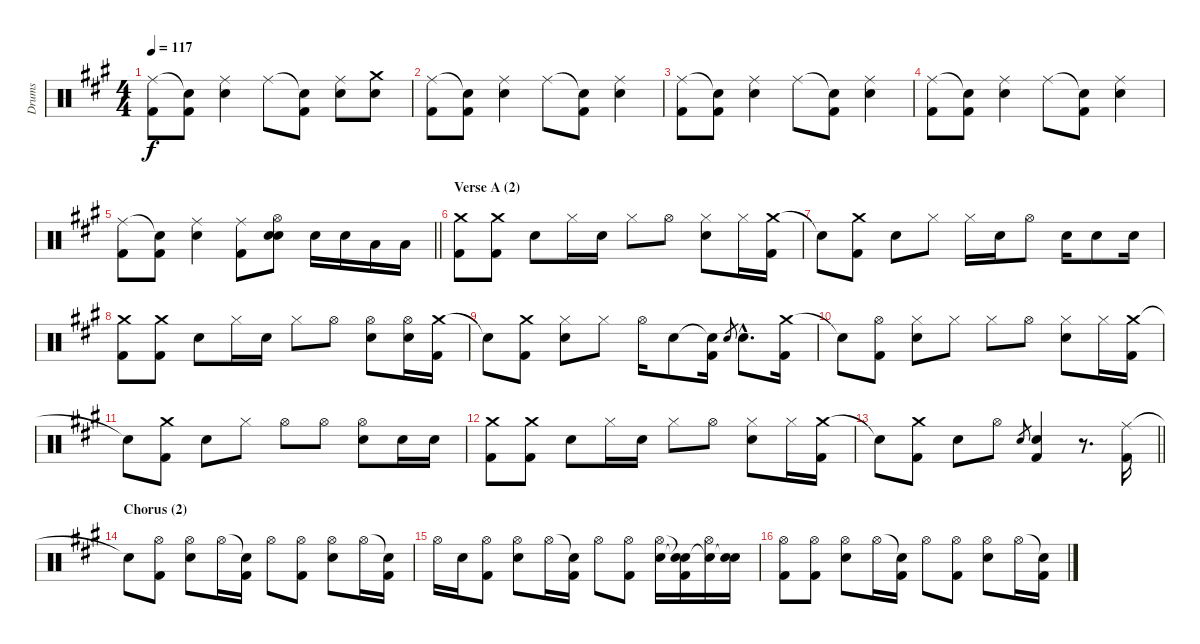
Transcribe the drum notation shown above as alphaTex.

\track ("Drums" "Drums") {instrument percussion}
\staff {score}
\articulation defaults
\ts (4 4)
\tempo 117
\clef neutral
\ks f#minor
("Ride (middle)" "Kick (hit) 2").8{dy f} ("Snare (hit)"{t} "Kick (hit) 2").8 ("Ride (middle)" "Electric Snare (hit)").4 "Ride (middle)".8 ("Snare (hit)"{t} "Kick (hit) 2").8 ("Ride (middle)" "Electric Snare (hit)").8 ("Crash medium (hit)" "Electric Snare (hit)").8 |
("Ride (middle)" "Kick (hit) 2").8 ("Snare (hit)"{t} "Kick (hit) 2").8 ("Ride (middle)" "Electric Snare (hit)").4 "Ride (middle)".8 ("Snare (hit)"{t} "Kick (hit) 2").8 ("Ride (middle)" "Electric Snare (hit)").4 |
("Ride (middle)" "Kick (hit) 2").8 ("Snare (hit)"{t} "Kick (hit) 2").8 ("Ride (middle)" "Electric Snare (hit)").4 "Ride (middle)".8 ("Snare (hit)"{t} "Kick (hit) 2").8 ("Ride (middle)" "Electric Snare (hit)").4 |
("Ride (middle)" "Kick (hit) 2").8 ("Snare (hit)"{t} "Kick (hit) 2").8 ("Ride (middle)" "Electric Snare (hit)").4 "Ride (middle)".8 ("Snare (hit)"{t} "Kick (hit) 2").8 ("Ride (middle)" "Electric Snare (hit)").4 |
\barLineRight lightlight
("Ride (middle)" "Kick (hit) 2").8 ("Snare (hit)"{t} "Kick (hit) 2").8 ("Ride (middle)" "Electric Snare (hit)").4 ("Ride (middle)" "Kick (hit) 2").8 ("Hi-Hat (open)" "Electric Snare (hit)" "Snare (hit)").8 "Electric Snare (hit)".16 "Electric Snare (hit)".16 "Low Floor Tom (hit)".16 "Low Floor Tom (hit)".16 |
\section ("" "Verse A (2)")
("Crash medium (hit)" "Kick (hit) 2").8 ("Crash medium (hit)" "Kick (hit) 2").8 "Electric Snare (hit)".8 "Hi-Hat (closed)".16 "Electric Snare (hit)".16 "Hi-Hat (closed)".8 "Hi-Hat (open)".8 ("Hi-Hat (closed)" "Electric Snare (hit)").8 "Hi-Hat (closed)".16 ("Crash medium (hit)" "Kick (hit) 2").16 |
"Snare (hit)"{t}.8 ("Crash medium (hit)" "Kick (hit) 2").8 "Electric Snare (hit)".8 "Hi-Hat (closed)".8 "Hi-Hat (closed)".16 "Electric Snare (hit)".16 "Hi-Hat (open)".8 "Electric Snare (hit)".16 "Electric Snare (hit)".8 "Electric Snare (hit)".16 |
("Crash medium (hit)" "Kick (hit) 2").8 ("Crash medium (hit)" "Kick (hit) 2").8 "Electric Snare (hit)".8 "Hi-Hat (closed)".16 "Electric Snare (hit)".16 "Hi-Hat (closed)".8 "Hi-Hat (open)".8 ("Hi-Hat (open)" "Electric Snare (hit)").8 ("Hi-Hat (open)" "Electric Snare (hit)").16 ("Crash medium (hit)" "Kick (hit) 2").16 |
"Snare (hit)"{t}.8 ("Crash medium (hit)" "Kick (hit) 2").8 ("Hi-Hat (closed)" "Electric Snare (hit)").8 "Hi-Hat (closed)".8 "Hi-Hat (open)".16 "Electric Snare (hit)".8 ("Snare (hit)"{t} "Kick (hit) 2").16 "Electric Snare (hit)".8{gr} "Electric Snare (hit)"{hac}.8{d} ("Crash medium (hit)" "Kick (hit) 2").16 |
"Snare (hit)"{t}.8 ("Hi-Hat (open)" "Kick (hit) 2").8 ("Hi-Hat (closed)" "Electric Snare (hit)").8 "Hi-Hat (closed)".8 "Hi-Hat (closed)".8 "Hi-Hat (open)".8 ("Hi-Hat (closed)" "Electric Snare (hit)").8 "Hi-Hat (closed)".16 ("Crash medium (hit)" "Kick (hit) 2").16 |
"Snare (hit)"{t}.8 ("Crash medium (hit)" "Kick (hit) 2").8 "Electric Snare (hit)".8 "Hi-Hat (closed)".8 "Hi-Hat (open)".8 "Hi-Hat (open)".8 ("Hi-Hat (open)" "Electric Snare (hit)").8 "Electric Snare (hit)".16 "Electric Snare (hit)".16 |
("Crash medium (hit)" "Kick (hit) 2").8 ("Crash medium (hit)" "Kick (hit) 2").8 "Electric Snare (hit)".8 "Hi-Hat (closed)".16 "Electric Snare (hit)".16 "Hi-Hat (closed)".8 "Hi-Hat (open)".8 ("Hi-Hat (closed)" "Electric Snare (hit)").8 "Hi-Hat (closed)".16 ("Crash medium (hit)" "Kick (hit) 2").16 |
\barLineRight lightlight "Snare (hit)"{t}.8
("Crash medium (hit)" "Kick (hit) 2").8 "Electric Snare (hit)".8 "Hi-Hat (open)".8 "Electric Snare (hit)".8{gr} ("Electric Snare (hit)" "Kick (hit) 2").4 r.8{d} ("Ride (middle)" "Kick (hit) 2").16 |
\section ("" "Chorus (2)")
"Snare (hit)"{t}.8 ("Hi-Hat (open)" "Kick (hit) 2").8 ("Hi-Hat (open)" "Electric Snare (hit)").8 "Hi-Hat (open)".16 ("Snare (hit)"{t} "Kick (hit) 2").16 "Hi-Hat (open)".8 ("Hi-Hat (open)" "Kick (hit) 2").8 ("Hi-Hat (open)" "Electric Snare (hit)").8 "Hi-Hat (open)".16 ("Snare (hit)"{t} "Kick (hit) 2").16 |
"Hi-Hat (open)".16 "Electric Snare (hit)".16 ("Hi-Hat (open)" "Kick (hit) 2").8 ("Hi-Hat (open)" "Electric Snare (hit)").8 "Hi-Hat (open)".16 ("Snare (hit)"{t} "Kick (hit) 2").16 "Hi-Hat (open)".8 ("Hi-Hat (open)" "Kick (hit) 2").8 ("Hi-Hat (open)" "Electric Snare (hit)").16 ("Snare (hit)"{t} "Snare (hit)"{t} "Kick (hit) 2").16 ("Hi-Hat (open)" "Snare (hit)"{t}).16 ("Electric Snare (hit)" "Snare (hit)"{t}).16 |
("Hi-Hat (open)" "Kick (hit) 2").8 ("Hi-Hat (open)" "Kick (hit) 2").8 ("Hi-Hat (open)" "Electric Snare (hit)").8 "Hi-Hat (open)".16 ("Snare (hit)"{t} "Kick (hit) 2").16 "Hi-Hat (open)".8 ("Hi-Hat (open)" "Kick (hit) 2").8 ("Hi-Hat (open)" "Electric Snare (hit)").8 "Hi-Hat (open)".16 ("Snare (hit)"{t} "Kick (hit) 2").16
